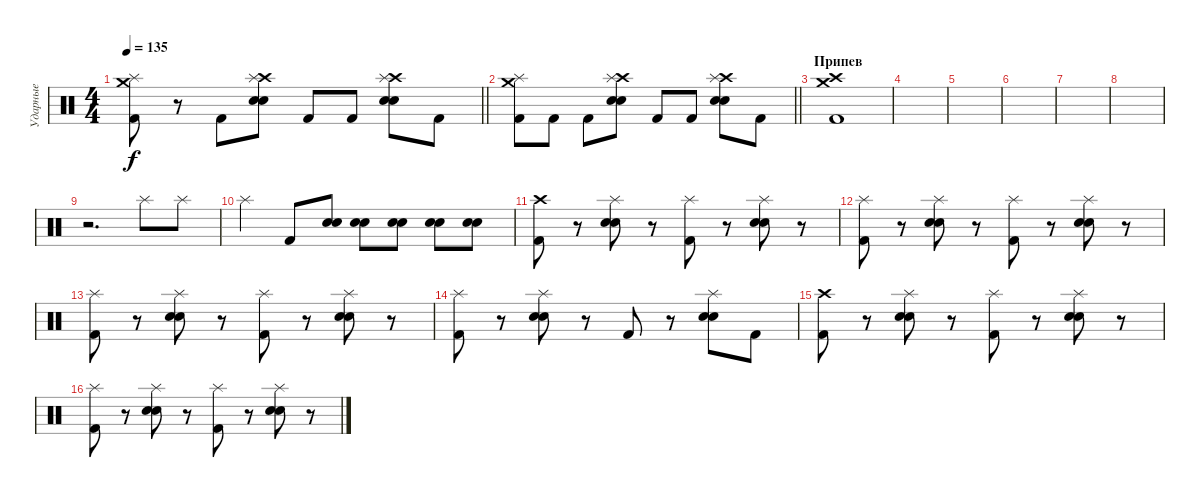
\track ("Ударные" "Ударные") {instrument percussion}
\staff {score}
\articulation defaults
\ts (4 4)
\tempo 135
\clef neutral
\barLineRight lightlight
\ks c
("Crash medium (hit)" "Splash (hit)" "Kick (hit) 2").8{dy f} r.8 "Kick (hit) 2".8 ("Crash high (hit)" "Splash (hit)" "Electric Snare (hit)" "Snare (hit) 2").8 "Kick (hit) 2".8 "Kick (hit) 2".8 ("Crash high (hit)" "Splash (hit)" "Electric Snare (hit)" "Snare (hit) 2").8 "Kick (hit) 2".8 |
\barLineRight lightlight
("Crash medium (hit)" "Splash (hit)" "Kick (hit) 2").8 "Kick (hit) 2".8 "Kick (hit) 2".8 ("Crash high (hit)" "Splash (hit)" "Electric Snare (hit)" "Snare (hit) 2").8 "Kick (hit) 2".8 "Kick (hit) 2".8 ("Crash high (hit)" "Splash (hit)" "Electric Snare (hit)" "Snare (hit) 2").8 "Kick (hit) 2".8 |
\section ("" "Припев")
("Crash high (hit)" "Crash medium (hit)" "Kick (hit) 2").1 |
|
|
|
|
|
r.2{d} "Splash (hit)".8 "Splash (hit)".8 |
"Splash (hit)".4 "Kick (hit) 2".8 ("Electric Snare (hit)" "Snare (hit) 2").8 ("Electric Snare (hit)" "Snare (hit) 2").8 ("Electric Snare (hit)" "Snare (hit) 2").8 ("Electric Snare (hit)" "Snare (hit) 2").8 ("Electric Snare (hit)" "Snare (hit) 2").8 |
("Crash high (hit)" "Kick (hit) 2").8 r.8 ("Splash (hit)" "Electric Snare (hit)" "Snare (hit) 2").8 r.8 ("Splash (hit)" "Kick (hit) 2").8 r.8 ("Splash (hit)" "Electric Snare (hit)" "Snare (hit) 2").8 r.8 |
("Splash (hit)" "Kick (hit) 2").8 r.8 ("Splash (hit)" "Electric Snare (hit)" "Snare (hit) 2").8 r.8 ("Splash (hit)" "Kick (hit) 2").8 r.8 ("Splash (hit)" "Electric Snare (hit)" "Snare (hit) 2").8 r.8 |
("Splash (hit)" "Kick (hit) 2").8 r.8 ("Splash (hit)" "Electric Snare (hit)" "Snare (hit) 2").8 r.8 ("Splash (hit)" "Kick (hit) 2").8 r.8 ("Splash (hit)" "Electric Snare (hit)" "Snare (hit) 2").8 r.8 |
("Splash (hit)" "Kick (hit) 2").8 r.8 ("Splash (hit)" "Electric Snare (hit)" "Snare (hit) 2").8 r.8 "Kick (hit) 2".8 r.8 ("Splash (hit)" "Electric Snare (hit)" "Snare (hit) 2").8 "Kick (hit) 2".8 |
("Crash high (hit)" "Kick (hit) 2").8 r.8 ("Splash (hit)" "Electric Snare (hit)" "Snare (hit) 2").8 r.8 ("Splash (hit)" "Kick (hit) 2").8 r.8 ("Splash (hit)" "Electric Snare (hit)" "Snare (hit) 2").8 r.8 |
("Splash (hit)" "Kick (hit) 2").8 r.8 ("Splash (hit)" "Electric Snare (hit)" "Snare (hit) 2").8 r.8 ("Splash (hit)" "Kick (hit) 2").8 r.8 ("Splash (hit)" "Electric Snare (hit)" "Snare (hit) 2").8 r.8
